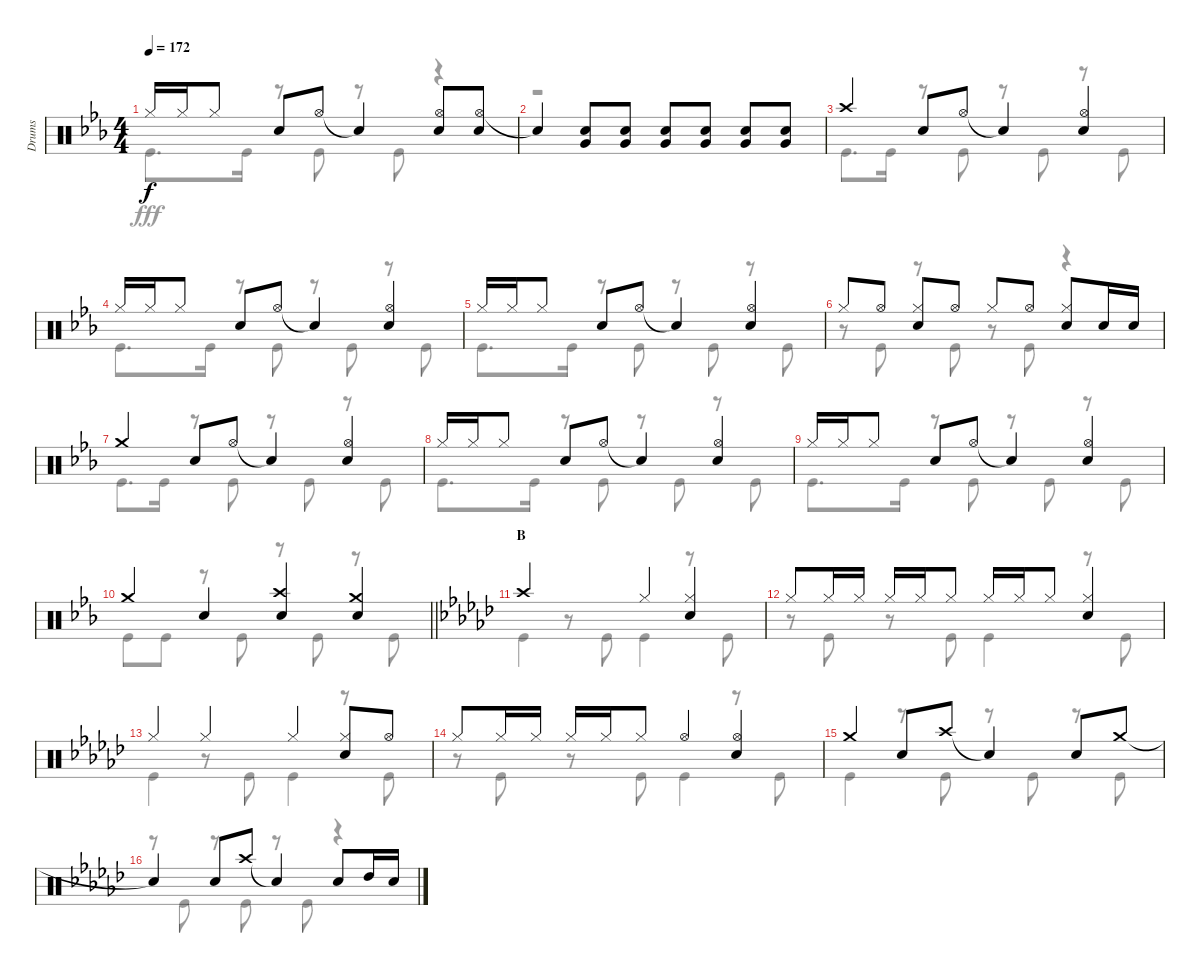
\track ("Drums" "Drums") {instrument percussion}
\staff {score}
\articulation defaults
\voice
\ts (4 4)
\tempo 172
\clef neutral
\ks eb "Hi-Hat (closed)".16{dy f} "Hi-Hat (closed)".16 "Hi-Hat (closed)".8 "Snare (hit) 2".8 "Hi-Hat (open)".8 "Snare (hit)"{t}.4
("Hi-Hat (open)" "Snare (hit) 2").8 ("Hi-Hat (open)" "Snare (hit) 2").8 |
"Snare (hit)"{t}.4 ("Snare (hit) 2" "Very Low Tom (hit)").8 ("Snare (hit) 2" "Very Low Tom (hit)").8 ("Snare (hit) 2" "Very Low Tom (hit)").8 ("Snare (hit) 2" "Very Low Tom (hit)").8 ("Snare (hit) 2" "Very Low Tom (hit)").8 ("Snare (hit) 2" "Very Low Tom (hit)").8 |
"Crash high (hit)".4 "Snare (hit) 2".8 "Hi-Hat (open)".8 "Snare (hit)"{t}.4 ("Hi-Hat (open)" "Snare (hit) 2").4 |
"Hi-Hat (closed)".16 "Hi-Hat (closed)".16 "Hi-Hat (closed)".8 "Snare (hit) 2".8 "Hi-Hat (open)".8 "Snare (hit)"{t}.4 ("Hi-Hat (open)" "Snare (hit) 2").4 |
"Hi-Hat (closed)".16 "Hi-Hat (closed)".16 "Hi-Hat (closed)".8 "Snare (hit) 2".8 "Hi-Hat (open)".8 "Snare (hit)"{t}.4 ("Hi-Hat (open)" "Snare (hit) 2").4 |
"Hi-Hat (closed)".8 "Hi-Hat (open)".8 ("Hi-Hat (closed)" "Snare (hit) 2").8 "Hi-Hat (open)".8 "Hi-Hat (closed)".8 "Hi-Hat (open)".8 ("Hi-Hat (closed)" "Snare (hit) 2").8 "Snare (hit) 2".16 "Snare (hit) 2".16 |
"Crash medium (hit)".4 "Snare (hit) 2".8 "Hi-Hat (open)".8 "Snare (hit)"{t}.4 ("Hi-Hat (open)" "Snare (hit) 2").4 |
"Hi-Hat (closed)".16 "Hi-Hat (closed)".16 "Hi-Hat (closed)".8 "Snare (hit) 2".8 "Hi-Hat (open)".8 "Snare (hit)"{t}.4 ("Hi-Hat (open)" "Snare (hit) 2").4 |
"Hi-Hat (closed)".16 "Hi-Hat (closed)".16 "Hi-Hat (closed)".8 "Snare (hit) 2".8 "Hi-Hat (open)".8 "Snare (hit)"{t}.4 ("Hi-Hat (open)" "Snare (hit) 2").4 |
\barLineRight lightlight "Crash medium (hit)".4 "Snare (hit) 2".4
("Crash high (hit)" "Snare (hit) 2").4 ("Crash medium (hit)" "Snare (hit) 2").4 |
\section ("" "B")
\ks gb "Crash high (hit)".2 "Hi-Hat (closed)".4
("Hi-Hat (closed)" "Snare (hit) 2").4 |
"Hi-Hat (closed)".8 "Hi-Hat (closed)".16 "Hi-Hat (closed)".16 "Hi-Hat (closed)".16 "Hi-Hat (closed)".16 "Hi-Hat (closed)".8 "Hi-Hat (closed)".16 "Hi-Hat (closed)".16 "Hi-Hat (closed)".8 ("Hi-Hat (closed)" "Snare (hit) 2").4 |
"Hi-Hat (closed)".4 "Hi-Hat (closed)".4 "Hi-Hat (closed)".4 ("Hi-Hat (closed)" "Snare (hit) 2").8 "Hi-Hat (open)".8 |
"Hi-Hat (closed)".8 "Hi-Hat (closed)".16 "Hi-Hat (closed)".16 "Hi-Hat (closed)".16 "Hi-Hat (closed)".16 "Hi-Hat (closed)".8 "Hi-Hat (open)".4 ("Hi-Hat (open)" "Snare (hit) 2").4 |
"Crash medium (hit)".4 "Snare (hit) 2".8 "Crash high (hit)".8 "Snare (hit)"{t}.4 "Snare (hit) 2".8 "Crash medium (hit)".8 |
"Snare (hit)"{t}.4 "Snare (hit) 2".8 "Crash high (hit)".8 "Snare (hit)"{t}.4 "Snare (hit) 2".8 "High Tom (hit)".16 "Snare (hit) 2".16
\voice
\clef neutral
\ottava regular
\simile none
\ks eb "Kick (hit)".8{d dy fff} "Kick (hit)".16
r.8 "Kick (hit)".8 r.8 "Kick (hit)".8 r.4 |
r.1 |
"Kick (hit)".8{d} "Kick (hit)".16 r.8 "Kick (hit)".8 r.8 "Kick (hit)".8 r.8 "Kick (hit)".8 |
"Kick (hit)".8{d} "Kick (hit)".16 r.8 "Kick (hit)".8 r.8 "Kick (hit)".8 r.8 "Kick (hit)".8 |
"Kick (hit)".8{d} "Kick (hit)".16 r.8 "Kick (hit)".8 r.8 "Kick (hit)".8 r.8 "Kick (hit)".8 |
r.8 "Kick (hit)".8 r.8 "Kick (hit)".8 r.8 "Kick (hit)".8 r.4 |
"Kick (hit)".8{d} "Kick (hit)".16 r.8 "Kick (hit)".8 r.8 "Kick (hit)".8 r.8 "Kick (hit)".8 |
"Kick (hit)".8{d} "Kick (hit)".16 r.8 "Kick (hit)".8 r.8 "Kick (hit)".8 r.8 "Kick (hit)".8 |
"Kick (hit)".8{d} "Kick (hit)".16 r.8 "Kick (hit)".8 r.8 "Kick (hit)".8 r.8 "Kick (hit)".8 |
\barLineRight lightlight "Kick (hit)".8 "Kick (hit)".8
r.8 "Kick (hit)".8 r.8 "Kick (hit)".8 r.8 "Kick (hit)".8 |
\ks gb "Kick (hit)".4
r.8 "Kick (hit)".8 "Kick (hit)".4 r.8 "Kick (hit)".8 |
r.8 "Kick (hit)".8 r.8 "Kick (hit)".8 "Kick (hit)".4 r.8 "Kick (hit)".8 |
"Kick (hit)".4 r.8 "Kick (hit)".8 "Kick (hit)".4 r.8 "Kick (hit)".8 |
r.8 "Kick (hit)".8 r.8 "Kick (hit)".8 "Kick (hit)".4 r.8 "Kick (hit)".8 |
"Kick (hit)".4 r.8 "Kick (hit)".8 r.8 "Kick (hit)".8 r.8 "Kick (hit)".8 |
r.8 "Kick (hit)".8 r.8 "Kick (hit)".8 r.8 "Kick (hit)".8 r.4
